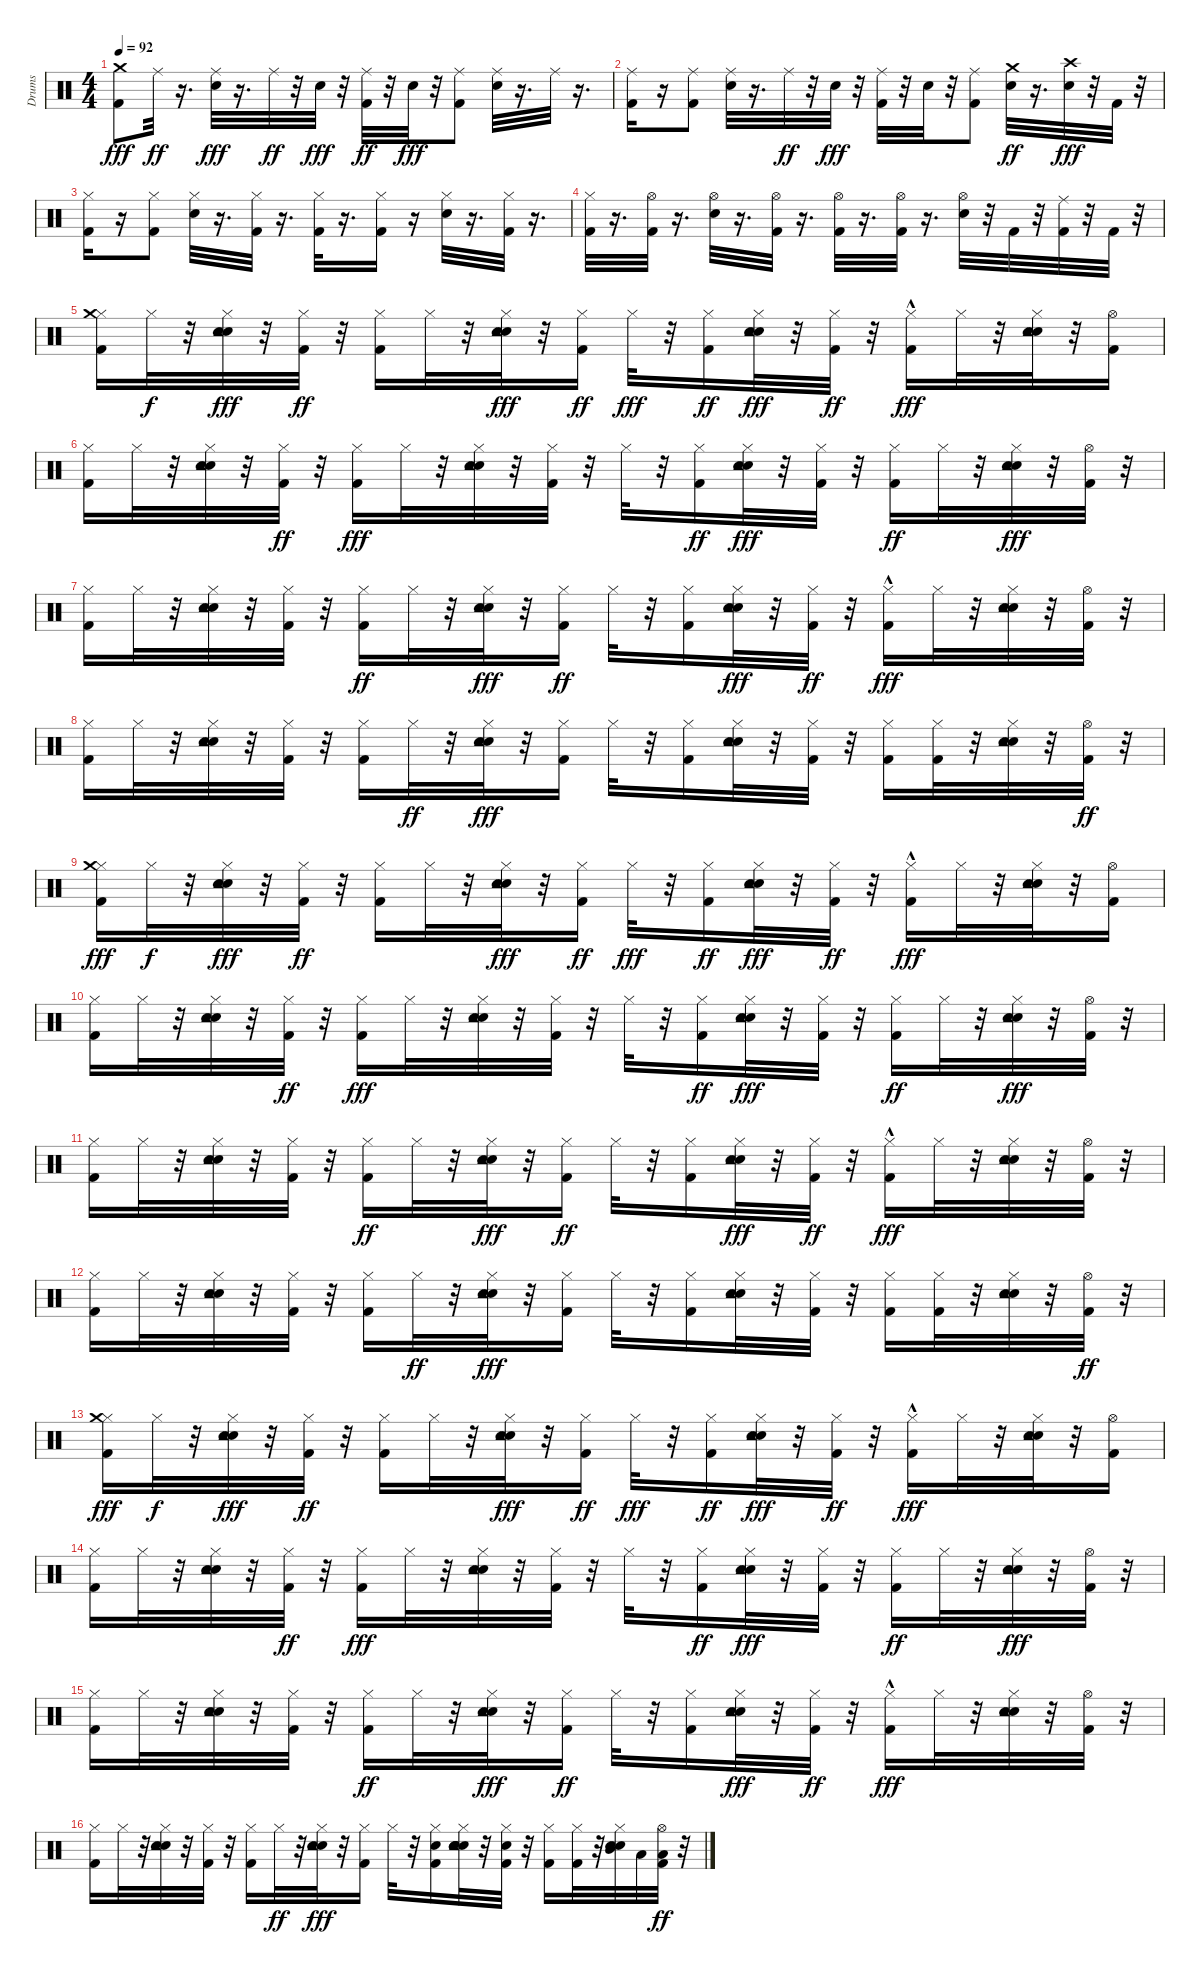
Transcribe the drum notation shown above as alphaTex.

\track ("Drums" "Drums") {instrument percussion}
\staff {score}
\articulation defaults
\ts (4 4)
\tempo 92
\clef neutral
\ks c
("Kick (hit) 2" "Crash medium (hit)").8{dy fff} "Ride (middle)".32{dy ff} r.16{d} ("Snare (hit) 2" "Ride (middle)").32{dy fff} r.16{d} "Ride (middle)".32{dy ff} r.32 "Snare (hit) 2".32{dy fff} r.32 ("Kick (hit) 2" "Ride (middle)").32{dy ff} r.32 "Snare (hit) 2".32{dy fff} r.32 ("Kick (hit) 2" "Ride (middle)").8 ("Snare (hit) 2" "Ride (middle)").32 r.16{d} "Ride (middle)".32 r.16{d} |
("Kick (hit) 2" "Ride (middle)").16 r.16 ("Kick (hit) 2" "Ride (middle)").8 ("Snare (hit) 2" "Ride (middle)").32 r.16{d} "Ride (middle)".32{dy ff} r.32 "Snare (hit) 2".32{dy fff} r.32 ("Kick (hit) 2" "Ride (middle)").32 r.32 "Snare (hit) 2".32 r.32 ("Kick (hit) 2" "Ride (middle)").8 ("Snare (hit) 2" "Crash medium (hit)").32{dy ff} r.16{d} ("Snare (hit) 2" "Crash high (hit)").32{dy fff} r.32 "Kick (hit) 2".32 r.32 |
("Kick (hit) 2" "Hi-Hat (closed)").16 r.16 ("Kick (hit) 2" "Hi-Hat (closed)").8 ("Snare (hit) 2" "Hi-Hat (closed)").32 r.16{d} ("Kick (hit) 2" "Hi-Hat (closed)").32 r.16{d} ("Kick (hit) 2" "Hi-Hat (closed)").32 r.16{d} ("Kick (hit) 2" "Hi-Hat (closed)").16 r.16 ("Snare (hit) 2" "Hi-Hat (closed)").32 r.16{d} ("Kick (hit) 2" "Hi-Hat (closed)").32 r.16{d} |
("Kick (hit) 2" "Hi-Hat (closed)").32 r.16{d} ("Kick (hit) 2" "Hi-Hat (open)").32 r.16{d} ("Snare (hit) 2" "Hi-Hat (open)").32 r.16{d} ("Kick (hit) 2" "Hi-Hat (open)").32 r.16{d} ("Kick (hit) 2" "Hi-Hat (open)").32 r.16{d} ("Kick (hit) 2" "Hi-Hat (open)").32 r.16{d} ("Snare (hit) 2" "Hi-Hat (open)").32 r.32 "Kick (hit) 2".32 r.32 ("Kick (hit) 2" "Ride (middle)").32 r.32 "Kick (hit) 2".32 r.32 |
("Kick (hit) 2" "Hi-Hat (closed)" "Crash medium (hit)").16 "Hi-Hat (closed)".32{dy f} r.32 ("Snare (hit) 2" "Hand Clap (hit)" "Hi-Hat (closed)" "Tambourine (hit)").32{dy fff} r.32 ("Kick (hit) 2" "Hi-Hat (closed)").32{dy ff} r.32 ("Kick (hit) 2" "Hi-Hat (closed)").16 "Hi-Hat (closed)".32 r.32 ("Snare (hit) 2" "Hand Clap (hit)" "Hi-Hat (closed)" "Tambourine (hit)").32{dy fff} r.32 ("Kick (hit) 2" "Hi-Hat (closed)").16{dy ff} "Hi-Hat (closed)".32{dy fff} r.32 ("Kick (hit) 2" "Hi-Hat (closed)").16{dy ff} ("Snare (hit) 2" "Hand Clap (hit)" "Hi-Hat (closed)" "Tambourine (hit)").32{dy fff} r.32 ("Kick (hit) 2" "Hi-Hat (closed)").32{dy ff} r.32 ("Kick (hit) 2"{hac} "Hi-Hat (closed)").16{dy fff} "Hi-Hat (closed)".32 r.32 ("Snare (hit) 2" "Hand Clap (hit)" "Hi-Hat (closed)" "Tambourine (hit)").32 r.32 ("Kick (hit) 2" "Hi-Hat (open)").16 |
("Kick (hit) 2" "Hi-Hat (closed)").16 "Hi-Hat (closed)".32 r.32 ("Snare (hit) 2" "Hand Clap (hit)" "Hi-Hat (closed)" "Tambourine (hit)").32 r.32 ("Kick (hit) 2" "Hi-Hat (closed)").32{dy ff} r.32 ("Kick (hit) 2" "Hi-Hat (closed)").16{dy fff} "Hi-Hat (closed)".32 r.32 ("Snare (hit) 2" "Hand Clap (hit)" "Hi-Hat (closed)" "Tambourine (hit)").32 r.32 ("Kick (hit) 2" "Hi-Hat (closed)").32 r.32 "Hi-Hat (closed)".32 r.32 ("Kick (hit) 2" "Hi-Hat (closed)").16{dy ff} ("Snare (hit) 2" "Hand Clap (hit)" "Hi-Hat (closed)" "Tambourine (hit)").32{dy fff} r.32 ("Kick (hit) 2" "Hi-Hat (closed)").32 r.32 ("Kick (hit) 2" "Hi-Hat (closed)").16{dy ff} "Hi-Hat (closed)".32 r.32 ("Snare (hit) 2" "Hand Clap (hit)" "Hi-Hat (closed)" "Tambourine (hit)").32{dy fff} r.32 ("Kick (hit) 2" "Hi-Hat (open)").32 r.32 |
("Kick (hit) 2" "Hi-Hat (closed)").16 "Hi-Hat (closed)".32 r.32 ("Snare (hit) 2" "Hand Clap (hit)" "Hi-Hat (closed)" "Tambourine (hit)").32 r.32 ("Kick (hit) 2" "Hi-Hat (closed)").32 r.32 ("Kick (hit) 2" "Hi-Hat (closed)").16{dy ff} "Hi-Hat (closed)".32 r.32 ("Snare (hit) 2" "Hand Clap (hit)" "Hi-Hat (closed)" "Tambourine (hit)").32{dy fff} r.32 ("Kick (hit) 2" "Hi-Hat (closed)").16{dy ff} "Hi-Hat (closed)".32 r.32 ("Kick (hit) 2" "Hi-Hat (closed)").16 ("Snare (hit) 2" "Hand Clap (hit)" "Hi-Hat (closed)" "Tambourine (hit)").32{dy fff} r.32 ("Kick (hit) 2" "Hi-Hat (closed)").32{dy ff} r.32 ("Kick (hit) 2"{hac} "Hi-Hat (closed)").16{dy fff} "Hi-Hat (closed)".32 r.32 ("Snare (hit) 2" "Hand Clap (hit)" "Hi-Hat (closed)" "Tambourine (hit)").32 r.32 ("Kick (hit) 2" "Hi-Hat (open)").32 r.32 |
("Kick (hit) 2" "Hi-Hat (closed)").16 "Hi-Hat (closed)".32 r.32 ("Snare (hit) 2" "Hand Clap (hit)" "Hi-Hat (closed)" "Tambourine (hit)").32 r.32 ("Kick (hit) 2" "Hi-Hat (closed)").32 r.32 ("Kick (hit) 2" "Hi-Hat (closed)").16 "Hi-Hat (closed)".32{dy ff} r.32 ("Snare (hit) 2" "Hand Clap (hit)" "Hi-Hat (closed)" "Tambourine (hit)").32{dy fff} r.32 ("Kick (hit) 2" "Hi-Hat (closed)").16 "Hi-Hat (closed)".32 r.32 ("Kick (hit) 2" "Hi-Hat (closed)").16 ("Snare (hit) 2" "Hand Clap (hit)" "Hi-Hat (closed)" "Tambourine (hit)").32 r.32 ("Kick (hit) 2" "Hi-Hat (closed)").32 r.32 ("Kick (hit) 2" "Hi-Hat (closed)").16 ("Kick (hit) 2" "Hi-Hat (closed)").32 r.32 ("Snare (hit) 2" "Hand Clap (hit)" "Hi-Hat (closed)" "Tambourine (hit)").32 r.32 ("Kick (hit) 2" "Hi-Hat (open)").32{dy ff} r.32 |
("Kick (hit) 2" "Hi-Hat (closed)" "Crash medium (hit)").16{dy fff} "Hi-Hat (closed)".32{dy f} r.32 ("Snare (hit) 2" "Hand Clap (hit)" "Hi-Hat (closed)" "Tambourine (hit)").32{dy fff} r.32 ("Kick (hit) 2" "Hi-Hat (closed)").32{dy ff} r.32 ("Kick (hit) 2" "Hi-Hat (closed)").16 "Hi-Hat (closed)".32 r.32 ("Snare (hit) 2" "Hand Clap (hit)" "Hi-Hat (closed)" "Tambourine (hit)").32{dy fff} r.32 ("Kick (hit) 2" "Hi-Hat (closed)").16{dy ff} "Hi-Hat (closed)".32{dy fff} r.32 ("Kick (hit) 2" "Hi-Hat (closed)").16{dy ff} ("Snare (hit) 2" "Hand Clap (hit)" "Hi-Hat (closed)" "Tambourine (hit)").32{dy fff} r.32 ("Kick (hit) 2" "Hi-Hat (closed)").32{dy ff} r.32 ("Kick (hit) 2"{hac} "Hi-Hat (closed)").16{dy fff} "Hi-Hat (closed)".32 r.32 ("Snare (hit) 2" "Hand Clap (hit)" "Hi-Hat (closed)" "Tambourine (hit)").32 r.32 ("Kick (hit) 2" "Hi-Hat (open)").16 |
("Kick (hit) 2" "Hi-Hat (closed)").16 "Hi-Hat (closed)".32 r.32 ("Snare (hit) 2" "Hand Clap (hit)" "Hi-Hat (closed)" "Tambourine (hit)").32 r.32 ("Kick (hit) 2" "Hi-Hat (closed)").32{dy ff} r.32 ("Kick (hit) 2" "Hi-Hat (closed)").16{dy fff} "Hi-Hat (closed)".32 r.32 ("Snare (hit) 2" "Hand Clap (hit)" "Hi-Hat (closed)" "Tambourine (hit)").32 r.32 ("Kick (hit) 2" "Hi-Hat (closed)").32 r.32 "Hi-Hat (closed)".32 r.32 ("Kick (hit) 2" "Hi-Hat (closed)").16{dy ff} ("Snare (hit) 2" "Hand Clap (hit)" "Hi-Hat (closed)" "Tambourine (hit)").32{dy fff} r.32 ("Kick (hit) 2" "Hi-Hat (closed)").32 r.32 ("Kick (hit) 2" "Hi-Hat (closed)").16{dy ff} "Hi-Hat (closed)".32 r.32 ("Snare (hit) 2" "Hand Clap (hit)" "Hi-Hat (closed)" "Tambourine (hit)").32{dy fff} r.32 ("Kick (hit) 2" "Hi-Hat (open)").32 r.32 |
("Kick (hit) 2" "Hi-Hat (closed)").16 "Hi-Hat (closed)".32 r.32 ("Snare (hit) 2" "Hand Clap (hit)" "Hi-Hat (closed)" "Tambourine (hit)").32 r.32 ("Kick (hit) 2" "Hi-Hat (closed)").32 r.32 ("Kick (hit) 2" "Hi-Hat (closed)").16{dy ff} "Hi-Hat (closed)".32 r.32 ("Snare (hit) 2" "Hand Clap (hit)" "Hi-Hat (closed)" "Tambourine (hit)").32{dy fff} r.32 ("Kick (hit) 2" "Hi-Hat (closed)").16{dy ff} "Hi-Hat (closed)".32 r.32 ("Kick (hit) 2" "Hi-Hat (closed)").16 ("Snare (hit) 2" "Hand Clap (hit)" "Hi-Hat (closed)" "Tambourine (hit)").32{dy fff} r.32 ("Kick (hit) 2" "Hi-Hat (closed)").32{dy ff} r.32 ("Kick (hit) 2"{hac} "Hi-Hat (closed)").16{dy fff} "Hi-Hat (closed)".32 r.32 ("Snare (hit) 2" "Hand Clap (hit)" "Hi-Hat (closed)" "Tambourine (hit)").32 r.32 ("Kick (hit) 2" "Hi-Hat (open)").32 r.32 |
("Kick (hit) 2" "Hi-Hat (closed)").16 "Hi-Hat (closed)".32 r.32 ("Snare (hit) 2" "Hand Clap (hit)" "Hi-Hat (closed)" "Tambourine (hit)").32 r.32 ("Kick (hit) 2" "Hi-Hat (closed)").32 r.32 ("Kick (hit) 2" "Hi-Hat (closed)").16 "Hi-Hat (closed)".32{dy ff} r.32 ("Snare (hit) 2" "Hand Clap (hit)" "Hi-Hat (closed)" "Tambourine (hit)").32{dy fff} r.32 ("Kick (hit) 2" "Hi-Hat (closed)").16 "Hi-Hat (closed)".32 r.32 ("Kick (hit) 2" "Hi-Hat (closed)").16 ("Snare (hit) 2" "Hand Clap (hit)" "Hi-Hat (closed)" "Tambourine (hit)").32 r.32 ("Kick (hit) 2" "Hi-Hat (closed)").32 r.32 ("Kick (hit) 2" "Hi-Hat (closed)").16 ("Kick (hit) 2" "Hi-Hat (closed)").32 r.32 ("Snare (hit) 2" "Hand Clap (hit)" "Hi-Hat (closed)" "Tambourine (hit)").32 r.32 ("Kick (hit) 2" "Hi-Hat (open)").32{dy ff} r.32 |
("Kick (hit) 2" "Hi-Hat (closed)" "Crash medium (hit)").16{dy fff} "Hi-Hat (closed)".32{dy f} r.32 ("Snare (hit) 2" "Hand Clap (hit)" "Hi-Hat (closed)" "Tambourine (hit)").32{dy fff} r.32 ("Kick (hit) 2" "Hi-Hat (closed)").32{dy ff} r.32 ("Kick (hit) 2" "Hi-Hat (closed)").16 "Hi-Hat (closed)".32 r.32 ("Snare (hit) 2" "Hand Clap (hit)" "Hi-Hat (closed)" "Tambourine (hit)").32{dy fff} r.32 ("Kick (hit) 2" "Hi-Hat (closed)").16{dy ff} "Hi-Hat (closed)".32{dy fff} r.32 ("Kick (hit) 2" "Hi-Hat (closed)").16{dy ff} ("Snare (hit) 2" "Hand Clap (hit)" "Hi-Hat (closed)" "Tambourine (hit)").32{dy fff} r.32 ("Kick (hit) 2" "Hi-Hat (closed)").32{dy ff} r.32 ("Kick (hit) 2"{hac} "Hi-Hat (closed)").16{dy fff} "Hi-Hat (closed)".32 r.32 ("Snare (hit) 2" "Hand Clap (hit)" "Hi-Hat (closed)" "Tambourine (hit)").32 r.32 ("Kick (hit) 2" "Hi-Hat (open)").16 |
("Kick (hit) 2" "Hi-Hat (closed)").16 "Hi-Hat (closed)".32 r.32 ("Snare (hit) 2" "Hand Clap (hit)" "Hi-Hat (closed)" "Tambourine (hit)").32 r.32 ("Kick (hit) 2" "Hi-Hat (closed)").32{dy ff} r.32 ("Kick (hit) 2" "Hi-Hat (closed)").16{dy fff} "Hi-Hat (closed)".32 r.32 ("Snare (hit) 2" "Hand Clap (hit)" "Hi-Hat (closed)" "Tambourine (hit)").32 r.32 ("Kick (hit) 2" "Hi-Hat (closed)").32 r.32 "Hi-Hat (closed)".32 r.32 ("Kick (hit) 2" "Hi-Hat (closed)").16{dy ff} ("Snare (hit) 2" "Hand Clap (hit)" "Hi-Hat (closed)" "Tambourine (hit)").32{dy fff} r.32 ("Kick (hit) 2" "Hi-Hat (closed)").32 r.32 ("Kick (hit) 2" "Hi-Hat (closed)").16{dy ff} "Hi-Hat (closed)".32 r.32 ("Snare (hit) 2" "Hand Clap (hit)" "Hi-Hat (closed)" "Tambourine (hit)").32{dy fff} r.32 ("Kick (hit) 2" "Hi-Hat (open)").32 r.32 |
("Kick (hit) 2" "Hi-Hat (closed)").16 "Hi-Hat (closed)".32 r.32 ("Snare (hit) 2" "Hand Clap (hit)" "Hi-Hat (closed)" "Tambourine (hit)").32 r.32 ("Kick (hit) 2" "Hi-Hat (closed)").32 r.32 ("Kick (hit) 2" "Hi-Hat (closed)").16{dy ff} "Hi-Hat (closed)".32 r.32 ("Snare (hit) 2" "Hand Clap (hit)" "Hi-Hat (closed)" "Tambourine (hit)").32{dy fff} r.32 ("Kick (hit) 2" "Hi-Hat (closed)").16{dy ff} "Hi-Hat (closed)".32 r.32 ("Kick (hit) 2" "Hi-Hat (closed)").16 ("Snare (hit) 2" "Hand Clap (hit)" "Hi-Hat (closed)" "Tambourine (hit)").32{dy fff} r.32 ("Kick (hit) 2" "Hi-Hat (closed)").32{dy ff} r.32 ("Kick (hit) 2"{hac} "Hi-Hat (closed)").16{dy fff} "Hi-Hat (closed)".32 r.32 ("Snare (hit) 2" "Hand Clap (hit)" "Hi-Hat (closed)" "Tambourine (hit)").32 r.32 ("Kick (hit) 2" "Hi-Hat (open)").32 r.32 |
("Kick (hit) 2" "Hi-Hat (closed)").16 "Hi-Hat (closed)".32 r.32 ("Snare (hit) 2" "Hand Clap (hit)" "Hi-Hat (closed)" "Tambourine (hit)").32 r.32 ("Kick (hit) 2" "Hi-Hat (closed)").32 r.32 ("Kick (hit) 2" "Hi-Hat (closed)").16 "Hi-Hat (closed)".32{dy ff} r.32 ("Snare (hit) 2" "Hand Clap (hit)" "Hi-Hat (closed)" "Tambourine (hit)").32{dy fff} r.32 ("Kick (hit) 2" "Hi-Hat (closed)").16 "Hi-Hat (closed)".32 r.32 ("Kick (hit) 2" "Snare (hit) 2" "Hi-Hat (closed)").16 ("Snare (hit) 2" "Snare (hit) 2" "Snare (hit) 2" "Hand Clap (hit)" "Hi-Hat (closed)" "Tambourine (hit)").32 r.32 ("Snare (hit) 2" "Kick (hit) 2" "Hi-Hat (closed)").32 r.32 ("Kick (hit) 2" "Hi-Hat (closed)").16 ("Kick (hit) 2" "Hi-Hat (closed)").32 r.32 ("Snare (hit) 2" "Hand Clap (hit)" "Hi-Hat (closed)" "Mid Tom (hit)" "Tambourine (hit)").32 "Low Tom (hit)".32 ("Kick (hit) 2" "Low Floor Tom (hit)" "Hi-Hat (open)").32{dy ff} r.32
